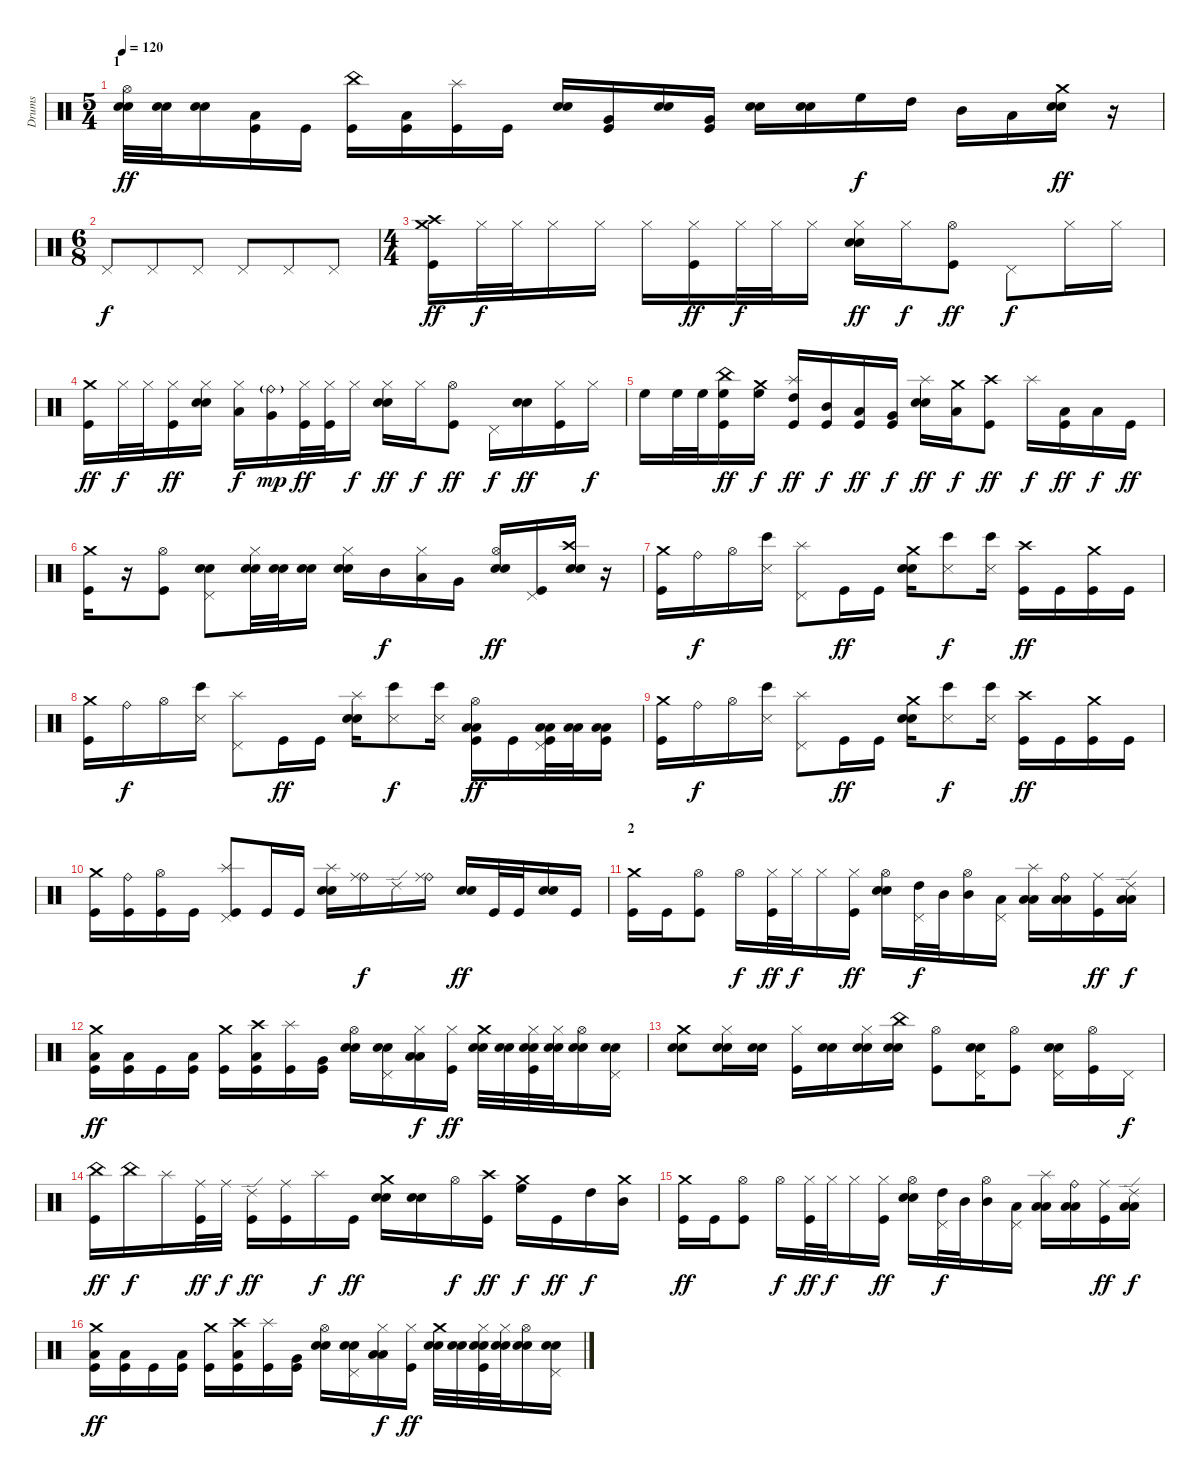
\track ("Drums" "Drums") {instrument percussion}
\staff {score}
\articulation defaults
\ts (5 4)
\section ("" "1")
\tempo 120
\clef neutral
\ks c
("Electric Snare (hit)" "Electric Snare (hit)" "Hi-Hat (open)").32{dy ff} ("Electric Snare (hit)" "Electric Snare (hit)").32 ("Electric Snare (hit)" "Electric Snare (hit)").16 ("Kick (hit)" "Low Tom (hit)").16 "Kick (hit)".16 ("Kick (hit)" "China (hit)").16 ("Kick (hit)" "Low Tom (hit)").16 ("Kick (hit)" "Splash (hit)").16 "Kick (hit)".16 ("Electric Snare (hit)" "Electric Snare (hit)").16 ("Kick (hit)" "Very Low Tom (hit)").16 ("Electric Snare (hit)" "Electric Snare (hit)").16 ("Kick (hit)" "Very Low Tom (hit)").16 ("Electric Snare (hit)" "Electric Snare (hit)").16 ("Electric Snare (hit)" "Electric Snare (hit)").16 "High Floor Tom (hit)".16{dy f} "High Tom (hit)".16 "Mid Tom (hit)".16 "Low Tom (hit)".16 ("Electric Snare (hit)" "Electric Snare (hit)" "Crash medium (hit)").16{dy ff} r.16 |
\ts (6 8)
"Pedal Hi-Hat (hit)".8{dy f} "Pedal Hi-Hat (hit)".8 "Pedal Hi-Hat (hit)".8 "Pedal Hi-Hat (hit)".8 "Pedal Hi-Hat (hit)".8 "Pedal Hi-Hat (hit)".8 |
\ts (4 4)
("Kick (hit)" "Crash high (hit)" "Crash medium (hit)").16{dy ff} "Hi-Hat (closed)".32{dy f} "Hi-Hat (closed)".32 "Hi-Hat (closed)".16 "Hi-Hat (closed)".16 "Hi-Hat (closed)".16 ("Kick (hit)" "Hi-Hat (closed)").16{dy ff} "Hi-Hat (closed)".32{dy f} "Hi-Hat (closed)".32 "Hi-Hat (closed)".16 ("Electric Snare (hit)" "Electric Snare (hit)" "Hi-Hat (closed)").16{dy ff} "Hi-Hat (closed)".16{dy f} ("Kick (hit)" "Hi-Hat (open)").8{dy ff} "Pedal Hi-Hat (hit)".8{dy f} "Hi-Hat (closed)".16 "Hi-Hat (closed)".16 |
("Kick (hit)" "Crash medium (hit)").16{dy ff} "Hi-Hat (closed)".32{dy f} "Hi-Hat (closed)".32 ("Kick (hit)" "Hi-Hat (closed)").16{dy ff} ("Electric Snare (hit)" "Electric Snare (hit)" "Hi-Hat (closed)").16 ("Low Tom (hit)" "Hi-Hat (closed)").16{dy f} ("Very Low Tom (hit)" "Ride (bell)"{g}).16{dy mp} ("Kick (hit)" "Hi-Hat (closed)").32{dy ff} ("Kick (hit)" "Hi-Hat (closed)").32 "Hi-Hat (closed)".16{dy f} ("Electric Snare (hit)" "Electric Snare (hit)" "Hi-Hat (closed)").16{dy ff} "Hi-Hat (closed)".16{dy f} ("Kick (hit)" "Hi-Hat (open)").8{dy ff} "Pedal Hi-Hat (hit)".16{dy f} ("Electric Snare (hit)" "Electric Snare (hit)").16{dy ff} ("Kick (hit)" "Hi-Hat (closed)").16 "Hi-Hat (closed)".16{dy f} |
"High Floor Tom (hit)".16 "High Floor Tom (hit)".32 "High Floor Tom (hit)".32 ("Kick (hit)" "High Floor Tom (hit)" "China (hit)").16{dy ff} ("High Floor Tom (hit)" "Crash medium (hit)").16{dy f} ("Kick (hit)" "High Tom (hit)" "Splash (hit)").16{dy ff} ("Kick (hit)" "Mid Tom (hit)").16{dy f} ("Kick (hit)" "Low Tom (hit)").16{dy ff} ("Kick (hit)" "Very Low Tom (hit)").16{dy f} ("Electric Snare (hit)" "Electric Snare (hit)" "Splash (hit)").16{dy ff} ("Low Floor Tom (hit)" "Crash medium (hit)").16{dy f} ("Kick (hit)" "Crash high (hit)").8{dy ff} "Splash (hit)".16{dy f} ("Kick (hit)" "Low Floor Tom (hit)").16{dy ff} "Low Floor Tom (hit)".16{dy f} "Kick (hit)".16{dy ff} |
("Kick (hit)" "Crash medium (hit)").16 r.16{volume 2} ("Kick (hit)" "Hi-Hat (open)").8{volume 13} ("Electric Snare (hit)" "Electric Snare (hit)" "Pedal Hi-Hat (hit)").8 ("Electric Snare (hit)" "Electric Snare (hit)" "Hi-Hat (closed)").32 ("Electric Snare (hit)" "Electric Snare (hit)").32 ("Electric Snare (hit)" "Electric Snare (hit)").16 ("Electric Snare (hit)" "Electric Snare (hit)" "Hi-Hat (closed)").16 "Mid Tom (hit)".16{dy f} ("Low Tom (hit)" "Hi-Hat (closed)").16 "Very Low Tom (hit)".16 ("Snare (hit) 2" "Electric Snare (hit)" "Hi-Hat (open)").16{dy ff} ("Kick (hit)" "Pedal Hi-Hat (hit)").16 ("Snare (hit) 2" "Electric Snare (hit)" "Crash high (hit)").16 r.16{volume 2} |
("Kick (hit)" "Crash medium (hit)").16{volume 13} "Ride (bell)".16{dy f} "Hi-Hat (open)".16 ("Snare (side stick) 3" "Bongo High (hit)").16 ("Pedal Hi-Hat (hit)" "Splash (hit)").8 "Kick (hit)".16{dy ff} "Kick (hit)".16 ("Electric Snare (hit)" "Electric Snare (hit)" "Crash medium (hit)").16 ("Snare (side stick) 3" "Bongo High (hit)").8{dy f} ("Snare (side stick) 3" "Bongo High (hit)").16 ("Kick (hit)" "Crash high (hit)").16{dy ff} "Kick (hit)".16 ("Kick (hit)" "Crash medium (hit)").16 "Kick (hit)".16 |
("Kick (hit)" "Crash medium (hit)").16 "Ride (bell)".16{dy f} "Hi-Hat (open)".16 ("Snare (side stick) 3" "Bongo High (hit)").16 ("Pedal Hi-Hat (hit)" "Splash (hit)").8 "Kick (hit)".16{dy ff} "Kick (hit)".16 ("Electric Snare (hit)" "Electric Snare (hit)" "Splash (hit)").16 ("Snare (side stick) 3" "Bongo High (hit)").8{dy f} ("Snare (side stick) 3" "Bongo High (hit)").16 ("Kick (hit)" "Low Floor Tom (hit)" "Low Floor Tom (hit)" "Hi-Hat (open)").16{dy ff} "Kick (hit)".16 ("Kick (hit)" "Low Floor Tom (hit)" "Low Floor Tom (hit)" "Pedal Hi-Hat (hit)").32 ("Low Floor Tom (hit)" "Low Floor Tom (hit)").32 ("Kick (hit)" "Low Floor Tom (hit)" "Low Floor Tom (hit)").16 |
("Kick (hit)" "Crash medium (hit)").16 "Ride (bell)".16{dy f} "Hi-Hat (open)".16 ("Snare (side stick) 3" "Bongo High (hit)").16 ("Pedal Hi-Hat (hit)" "Splash (hit)").8 "Kick (hit)".16{dy ff} "Kick (hit)".16 ("Electric Snare (hit)" "Electric Snare (hit)" "Crash medium (hit)").16 ("Snare (side stick) 3" "Bongo High (hit)").8{dy f} ("Snare (side stick) 3" "Bongo High (hit)").16 ("Kick (hit)" "Crash high (hit)").16{dy ff} "Kick (hit)".16 ("Kick (hit)" "Crash medium (hit)").16 "Kick (hit)".16 |
("Kick (hit)" "Crash medium (hit)").16 ("Kick (hit)" "Ride (bell)").16 ("Kick (hit)" "Hi-Hat (open)").16 "Kick (hit)".16 ("Kick (hit)" "Pedal Hi-Hat (hit)" "Splash (hit)").8 "Kick (hit)".16 "Kick (hit)".16 ("Electric Snare (hit)" "Electric Snare (hit)" "Splash (hit)").16 ("Ride (bell)" "Ride (middle)").16{dy f} "Ride (edge) 2".16 ("Ride (bell)" "Ride (middle)").16 ("Electric Snare (hit)" "Electric Snare (hit)").16{dy ff} "Kick (hit)".32 "Kick (hit)".32 ("Electric Snare (hit)" "Electric Snare (hit)").16 "Kick (hit)".16 |
\section ("" "2")
("Kick (hit)" "Crash medium (hit)").16 "Kick (hit)".16 ("Kick (hit)" "Hi-Hat (open)").8 "Hi-Hat (open)".16{dy f} ("Kick (hit)" "Hi-Hat (closed)").32{dy ff} "Hi-Hat (closed)".32{dy f} "Hi-Hat (closed)".16 ("Kick (hit)" "Hi-Hat (closed)").16{dy ff} ("Electric Snare (hit)" "Electric Snare (hit)" "Hi-Hat (open)").16 ("High Tom (hit)" "Pedal Hi-Hat (hit)").32{dy f} "Mid Tom (hit)".32 ("Mid Tom (hit)" "Hi-Hat (open)").16 ("Low Tom (hit)" "Pedal Hi-Hat (hit)").16 ("Low Floor Tom (hit)" "Low Floor Tom (hit)" "Splash (hit)").16 ("Low Floor Tom (hit)" "Low Floor Tom (hit)" "Ride (bell)").16 ("Kick (hit)" "Ride (middle)").16{dy ff} ("Low Floor Tom (hit)" "Low Floor Tom (hit)" "Ride (edge) 2").16{dy f} |
("Kick (hit)" "Low Tom (hit)" "Crash medium (hit)").16{dy ff} ("Kick (hit)" "Low Tom (hit)").16 "Kick (hit)".16 ("Kick (hit)" "Low Tom (hit)").16 ("Kick (hit)" "Crash medium (hit)").16 ("Kick (hit)" "Low Tom (hit)" "Crash high (hit)").16 ("Kick (hit)" "Splash (hit)").16 ("Kick (hit)" "Very Low Tom (hit)").16 ("Electric Snare (hit)" "Electric Snare (hit)" "Hi-Hat (open)").16 ("Electric Snare (hit)" "Electric Snare (hit)" "Pedal Hi-Hat (hit)").16 ("Low Floor Tom (hit)" "Low Floor Tom (hit)" "Hi-Hat (closed)").16{dy f} ("Kick (hit)" "Hi-Hat (closed)").16{dy ff} ("Electric Snare (hit)" "Electric Snare (hit)" "Crash medium (hit)").32 ("Electric Snare (hit)" "Electric Snare (hit)").32 ("Kick (hit)" "Electric Snare (hit)" "Electric Snare (hit)" "Hi-Hat (closed)").32 ("Electric Snare (hit)" "Electric Snare (hit)" "Hi-Hat (closed)").32 ("Electric Snare (hit)" "Electric Snare (hit)" "Hi-Hat (open)").16 ("Electric Snare (hit)" "Electric Snare (hit)" "Pedal Hi-Hat (hit)").16 |
("Electric Snare (hit)" "Electric Snare (hit)" "Crash medium (hit)").8 ("Electric Snare (hit)" "Electric Snare (hit)" "Hi-Hat (closed)").16 ("Electric Snare (hit)" "Electric Snare (hit)").16 ("Kick (hit)" "Hi-Hat (closed)").16 ("Electric Snare (hit)" "Electric Snare (hit)").16 ("Electric Snare (hit)" "Electric Snare (hit)" "Hi-Hat (closed)").16 ("Electric Snare (hit)" "Electric Snare (hit)" "China (hit)").16 ("Kick (hit)" "Hi-Hat (open)").8 ("Electric Snare (hit)" "Electric Snare (hit)" "Pedal Hi-Hat (hit)").16 ("Kick (hit)" "Hi-Hat (open)").8 ("Electric Snare (hit)" "Electric Snare (hit)" "Pedal Hi-Hat (hit)").16 ("Kick (hit)" "Hi-Hat (open)").16 "Pedal Hi-Hat (hit)".16{dy f} |
("Kick (hit)" "China (hit)").16{dy ff} "China (hit)".16{dy f} "Splash (hit)".16 ("Kick (hit)" "Ride (middle)").32{dy ff} "Ride (middle)".32{dy f} ("Kick (hit)" "Ride (edge) 2").16{dy ff} ("Kick (hit)" "Ride (middle)").16 "Splash (hit)".16{dy f} "Kick (hit)".16{dy ff} ("Electric Snare (hit)" "Electric Snare (hit)" "Crash medium (hit)").16 ("Electric Snare (hit)" "Electric Snare (hit)").16 "Hi-Hat (open)".16{dy f} ("Kick (hit)" "Crash high (hit)").16{dy ff} ("High Floor Tom (hit)" "Crash medium (hit)").16{dy f} "Kick (hit)".16{dy ff} "High Tom (hit)".16{dy f} ("Mid Tom (hit)" "Crash medium (hit)").16 |
("Kick (hit)" "Crash medium (hit)").16{dy ff} "Kick (hit)".16 ("Kick (hit)" "Hi-Hat (open)").8 "Hi-Hat (open)".16{dy f} ("Kick (hit)" "Hi-Hat (closed)").32{dy ff} "Hi-Hat (closed)".32{dy f} "Hi-Hat (closed)".16 ("Kick (hit)" "Hi-Hat (closed)").16{dy ff} ("Electric Snare (hit)" "Electric Snare (hit)" "Hi-Hat (open)").16 ("High Tom (hit)" "Pedal Hi-Hat (hit)").32{dy f} "Mid Tom (hit)".32 ("Mid Tom (hit)" "Hi-Hat (open)").16 ("Low Tom (hit)" "Pedal Hi-Hat (hit)").16 ("Low Floor Tom (hit)" "Low Floor Tom (hit)" "Splash (hit)").16 ("Low Floor Tom (hit)" "Low Floor Tom (hit)" "Ride (bell)").16 ("Kick (hit)" "Ride (middle)").16{dy ff} ("Low Floor Tom (hit)" "Low Floor Tom (hit)" "Ride (edge) 2").16{dy f} |
("Kick (hit)" "Low Tom (hit)" "Crash medium (hit)").16{dy ff} ("Kick (hit)" "Low Tom (hit)").16 "Kick (hit)".16 ("Kick (hit)" "Low Tom (hit)").16 ("Kick (hit)" "Crash medium (hit)").16 ("Kick (hit)" "Low Tom (hit)" "Crash high (hit)").16 ("Kick (hit)" "Splash (hit)").16 ("Kick (hit)" "Very Low Tom (hit)").16 ("Electric Snare (hit)" "Electric Snare (hit)" "Hi-Hat (open)").16 ("Electric Snare (hit)" "Electric Snare (hit)" "Pedal Hi-Hat (hit)").16 ("Low Floor Tom (hit)" "Low Floor Tom (hit)" "Hi-Hat (closed)").16{dy f} ("Kick (hit)" "Hi-Hat (closed)").16{dy ff} ("Electric Snare (hit)" "Electric Snare (hit)" "Crash medium (hit)").32 ("Electric Snare (hit)" "Electric Snare (hit)").32 ("Kick (hit)" "Electric Snare (hit)" "Electric Snare (hit)" "Hi-Hat (closed)").32 ("Electric Snare (hit)" "Electric Snare (hit)" "Hi-Hat (closed)").32 ("Electric Snare (hit)" "Electric Snare (hit)" "Hi-Hat (open)").16 ("Electric Snare (hit)" "Electric Snare (hit)" "Pedal Hi-Hat (hit)").16
